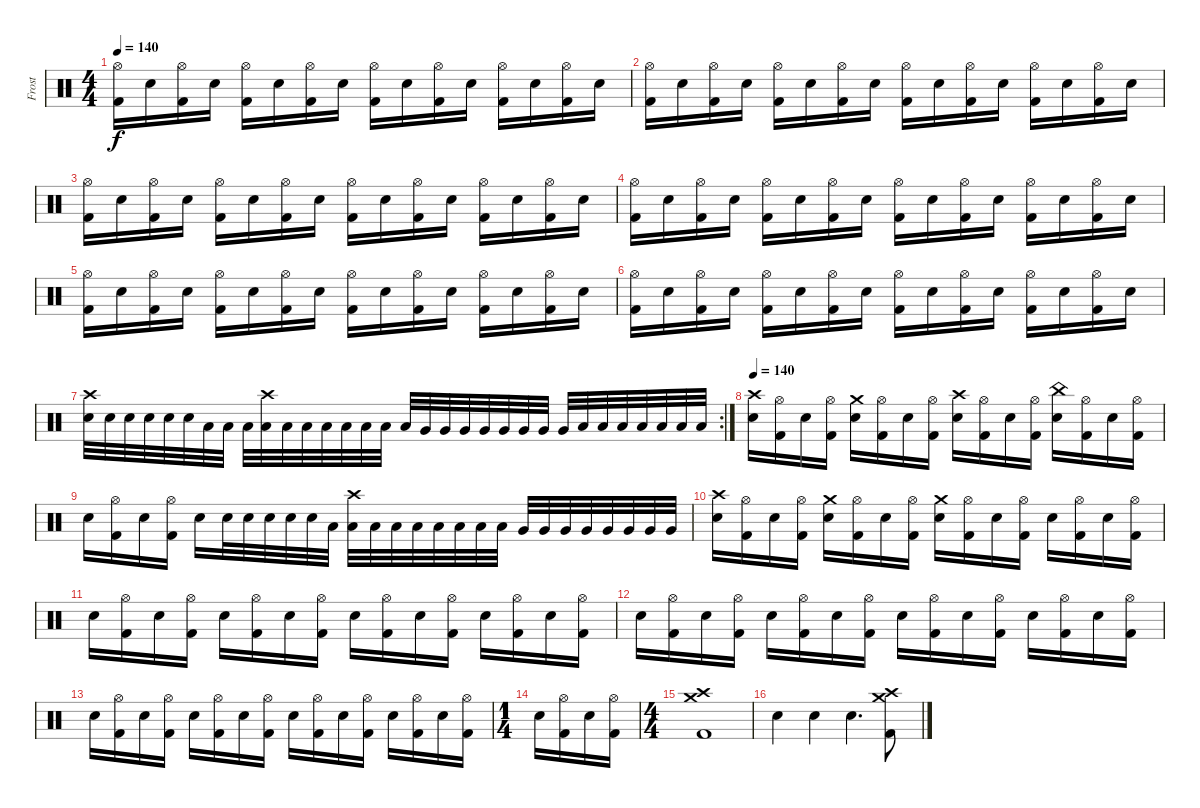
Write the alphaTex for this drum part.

\track ("Frost" "Frost") {instrument percussion}
\staff {score}
\articulation defaults
\ts (4 4)
\tempo 140
\clef neutral
\ks c
("Hi-Hat (open)" "Kick (hit) 2").16{dy f} "Snare (hit) 2".16 ("Hi-Hat (open)" "Kick (hit) 2").16 "Snare (hit) 2".16 ("Hi-Hat (open)" "Kick (hit) 2").16 "Snare (hit) 2".16 ("Hi-Hat (open)" "Kick (hit) 2").16 "Snare (hit) 2".16 ("Hi-Hat (open)" "Kick (hit) 2").16 "Snare (hit) 2".16 ("Hi-Hat (open)" "Kick (hit) 2").16 "Snare (hit) 2".16 ("Hi-Hat (open)" "Kick (hit) 2").16 "Snare (hit) 2".16 ("Hi-Hat (open)" "Kick (hit) 2").16 "Snare (hit) 2".16 |
("Hi-Hat (open)" "Kick (hit) 2").16 "Snare (hit) 2".16 ("Hi-Hat (open)" "Kick (hit) 2").16 "Snare (hit) 2".16 ("Hi-Hat (open)" "Kick (hit) 2").16 "Snare (hit) 2".16 ("Hi-Hat (open)" "Kick (hit) 2").16 "Snare (hit) 2".16 ("Hi-Hat (open)" "Kick (hit) 2").16 "Snare (hit) 2".16 ("Hi-Hat (open)" "Kick (hit) 2").16 "Snare (hit) 2".16 ("Hi-Hat (open)" "Kick (hit) 2").16 "Snare (hit) 2".16 ("Hi-Hat (open)" "Kick (hit) 2").16 "Snare (hit) 2".16 |
("Hi-Hat (open)" "Kick (hit) 2").16 "Snare (hit) 2".16 ("Hi-Hat (open)" "Kick (hit) 2").16 "Snare (hit) 2".16 ("Hi-Hat (open)" "Kick (hit) 2").16 "Snare (hit) 2".16 ("Hi-Hat (open)" "Kick (hit) 2").16 "Snare (hit) 2".16 ("Hi-Hat (open)" "Kick (hit) 2").16 "Snare (hit) 2".16 ("Hi-Hat (open)" "Kick (hit) 2").16 "Snare (hit) 2".16 ("Hi-Hat (open)" "Kick (hit) 2").16 "Snare (hit) 2".16 ("Hi-Hat (open)" "Kick (hit) 2").16 "Snare (hit) 2".16 |
("Hi-Hat (open)" "Kick (hit) 2").16 "Snare (hit) 2".16 ("Hi-Hat (open)" "Kick (hit) 2").16 "Snare (hit) 2".16 ("Hi-Hat (open)" "Kick (hit) 2").16 "Snare (hit) 2".16 ("Hi-Hat (open)" "Kick (hit) 2").16 "Snare (hit) 2".16 ("Hi-Hat (open)" "Kick (hit) 2").16 "Snare (hit) 2".16 ("Hi-Hat (open)" "Kick (hit) 2").16 "Snare (hit) 2".16 ("Hi-Hat (open)" "Kick (hit) 2").16 "Snare (hit) 2".16 ("Hi-Hat (open)" "Kick (hit) 2").16 "Snare (hit) 2".16 |
("Hi-Hat (open)" "Kick (hit) 2").16 "Snare (hit) 2".16 ("Hi-Hat (open)" "Kick (hit) 2").16 "Snare (hit) 2".16 ("Hi-Hat (open)" "Kick (hit) 2").16 "Snare (hit) 2".16 ("Hi-Hat (open)" "Kick (hit) 2").16 "Snare (hit) 2".16 ("Hi-Hat (open)" "Kick (hit) 2").16 "Snare (hit) 2".16 ("Hi-Hat (open)" "Kick (hit) 2").16 "Snare (hit) 2".16 ("Hi-Hat (open)" "Kick (hit) 2").16 "Snare (hit) 2".16 ("Hi-Hat (open)" "Kick (hit) 2").16 "Snare (hit) 2".16 |
("Hi-Hat (open)" "Kick (hit) 2").16 "Snare (hit) 2".16 ("Hi-Hat (open)" "Kick (hit) 2").16 "Snare (hit) 2".16 ("Hi-Hat (open)" "Kick (hit) 2").16 "Snare (hit) 2".16 ("Hi-Hat (open)" "Kick (hit) 2").16 "Snare (hit) 2".16 ("Hi-Hat (open)" "Kick (hit) 2").16 "Snare (hit) 2".16 ("Hi-Hat (open)" "Kick (hit) 2").16 "Snare (hit) 2".16 ("Hi-Hat (open)" "Kick (hit) 2").16 "Snare (hit) 2".16 ("Hi-Hat (open)" "Kick (hit) 2").16 "Snare (hit) 2".16 |
\rc 2
("Crash high (hit)" "Snare (hit) 2").32 "Snare (hit) 2".32 "Snare (hit) 2".32 "Snare (hit) 2".32 "Snare (hit) 2".32 "Snare (hit) 2".32 "Low Tom (hit)".32 "Low Tom (hit)".32 "Low Tom (hit)".32 ("Crash high (hit)" "Low Tom (hit)").32 "Low Tom (hit)".32 "Low Tom (hit)".32 "Low Tom (hit)".32 "Low Tom (hit)".32 "Low Tom (hit)".32 "Low Tom (hit)".32 "Low Tom (hit)".32 "Very Low Tom (hit)".32 "Very Low Tom (hit)".32 "Very Low Tom (hit)".32 "Very Low Tom (hit)".32 "Very Low Tom (hit)".32 "Very Low Tom (hit)".32 "Very Low Tom (hit)".32 "Very Low Tom (hit)".32 "Low Floor Tom (hit)".32 "Low Floor Tom (hit)".32 "Low Floor Tom (hit)".32 "Low Floor Tom (hit)".32 "Low Floor Tom (hit)".32 "Low Floor Tom (hit)".32 "Low Floor Tom (hit)".32 |
\tempo 140
("Crash high (hit)" "Snare (hit) 2").16 ("Hi-Hat (open)" "Kick (hit) 2").16 "Snare (hit) 2".16 ("Hi-Hat (open)" "Kick (hit) 2").16 ("Crash medium (hit)" "Snare (hit) 2").16 ("Hi-Hat (open)" "Kick (hit) 2").16 "Snare (hit) 2".16 ("Hi-Hat (open)" "Kick (hit) 2").16 ("Crash high (hit)" "Snare (hit) 2").16 ("Hi-Hat (open)" "Kick (hit) 2").16 "Snare (hit) 2".16 ("Hi-Hat (open)" "Kick (hit) 2").16 ("China (hit)" "Snare (hit) 2").16 ("Hi-Hat (open)" "Kick (hit) 2").16 "Snare (hit) 2".16 ("Hi-Hat (open)" "Kick (hit) 2").16 |
"Snare (hit) 2".16 ("Hi-Hat (open)" "Kick (hit) 2").16 "Snare (hit) 2".16 ("Hi-Hat (open)" "Kick (hit) 2").16 "Snare (hit) 2".16 "Snare (hit) 2".32 "Snare (hit) 2".32 "Snare (hit) 2".32 "Snare (hit) 2".32 "Snare (hit) 2".32 "Low Tom (hit)".32 ("Crash high (hit)" "Low Tom (hit)").32 "Low Tom (hit)".32 "Low Tom (hit)".32 "Low Tom (hit)".32 "Low Tom (hit)".32 "Low Tom (hit)".32 "Low Tom (hit)".32 "Low Tom (hit)".32 "Very Low Tom (hit)".32 "Very Low Tom (hit)".32 "Very Low Tom (hit)".32 "Very Low Tom (hit)".32 "Very Low Tom (hit)".32 "Very Low Tom (hit)".32 "Very Low Tom (hit)".32 "Very Low Tom (hit)".32 |
("Crash high (hit)" "Snare (hit) 2").16 ("Hi-Hat (open)" "Kick (hit) 2").16 "Snare (hit) 2".16 ("Hi-Hat (open)" "Kick (hit) 2").16 ("Crash medium (hit)" "Snare (hit) 2").16 ("Hi-Hat (open)" "Kick (hit) 2").16 "Snare (hit) 2".16 ("Hi-Hat (open)" "Kick (hit) 2").16 ("Crash medium (hit)" "Snare (hit) 2").16 ("Hi-Hat (open)" "Kick (hit) 2").16 "Snare (hit) 2".16 ("Hi-Hat (open)" "Kick (hit) 2").16 "Snare (hit) 2".16 ("Hi-Hat (open)" "Kick (hit) 2").16 "Snare (hit) 2".16 ("Hi-Hat (open)" "Kick (hit) 2").16 |
"Snare (hit) 2".16 ("Hi-Hat (open)" "Kick (hit) 2").16 "Snare (hit) 2".16 ("Hi-Hat (open)" "Kick (hit) 2").16 "Snare (hit) 2".16 ("Hi-Hat (open)" "Kick (hit) 2").16 "Snare (hit) 2".16 ("Hi-Hat (open)" "Kick (hit) 2").16 "Snare (hit) 2".16 ("Hi-Hat (open)" "Kick (hit) 2").16 "Snare (hit) 2".16 ("Hi-Hat (open)" "Kick (hit) 2").16 "Snare (hit) 2".16 ("Hi-Hat (open)" "Kick (hit) 2").16 "Snare (hit) 2".16 ("Hi-Hat (open)" "Kick (hit) 2").16 |
"Snare (hit) 2".16 ("Hi-Hat (open)" "Kick (hit) 2").16 "Snare (hit) 2".16 ("Hi-Hat (open)" "Kick (hit) 2").16 "Snare (hit) 2".16 ("Hi-Hat (open)" "Kick (hit) 2").16 "Snare (hit) 2".16 ("Hi-Hat (open)" "Kick (hit) 2").16 "Snare (hit) 2".16 ("Hi-Hat (open)" "Kick (hit) 2").16 "Snare (hit) 2".16 ("Hi-Hat (open)" "Kick (hit) 2").16 "Snare (hit) 2".16 ("Hi-Hat (open)" "Kick (hit) 2").16 "Snare (hit) 2".16 ("Hi-Hat (open)" "Kick (hit) 2").16 |
"Snare (hit) 2".16 ("Hi-Hat (open)" "Kick (hit) 2").16 "Snare (hit) 2".16 ("Hi-Hat (open)" "Kick (hit) 2").16 "Snare (hit) 2".16 ("Hi-Hat (open)" "Kick (hit) 2").16 "Snare (hit) 2".16 ("Hi-Hat (open)" "Kick (hit) 2").16 "Snare (hit) 2".16 ("Hi-Hat (open)" "Kick (hit) 2").16 "Snare (hit) 2".16 ("Hi-Hat (open)" "Kick (hit) 2").16 "Snare (hit) 2".16 ("Hi-Hat (open)" "Kick (hit) 2").16 "Snare (hit) 2".16 ("Hi-Hat (open)" "Kick (hit) 2").16 |
\ts (1 4)
"Snare (hit) 2".16 ("Hi-Hat (open)" "Kick (hit) 2").16 "Snare (hit) 2".16 ("Hi-Hat (open)" "Kick (hit) 2").16 |
\ts (4 4)
("Crash medium (hit)" "Crash high (hit)" "Kick (hit) 2").1 |
"Snare (hit)".4 "Snare (hit)".4 "Snare (hit)".4{d} ("Crash medium (hit)" "Crash high (hit)" "Kick (hit) 2").8
